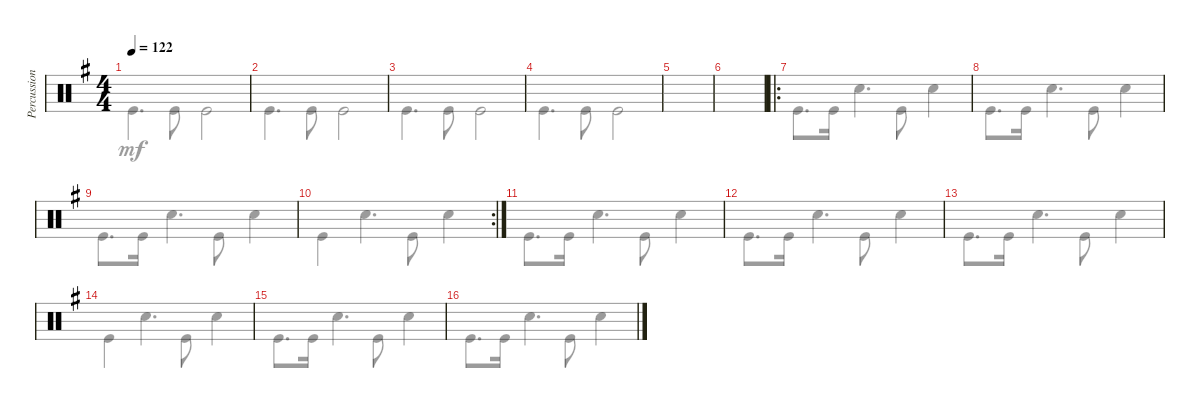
\track ("Percussion" "Percussion") {instrument percussion}
\staff {score}
\articulation defaults
\voice
\ts (4 4)
\tempo 122
\clef neutral
\ks eminor
|
|
|
|
|
|
\ro
|
|
|
\rc 2
|
|
|
|
|
|
\voice
\clef neutral
\ks eminor "Kick (hit)".4{d dy mf} "Kick (hit)".8 "Kick (hit)".2
|
"Kick (hit)".4{d} "Kick (hit)".8 "Kick (hit)".2 |
"Kick (hit)".4{d} "Kick (hit)".8 "Kick (hit)".2 |
"Kick (hit)".4{d} "Kick (hit)".8 "Kick (hit)".2 |
|
|
"Kick (hit)".8{d} "Kick (hit)".16 "Snare (hit) 2".4{d} "Kick (hit)".8 "Snare (hit) 2".4 |
"Kick (hit)".8{d} "Kick (hit)".16 "Snare (hit) 2".4{d} "Kick (hit)".8 "Snare (hit) 2".4 |
"Kick (hit)".8{d} "Kick (hit)".16 "Snare (hit) 2".4{d} "Kick (hit)".8 "Snare (hit) 2".4 |
"Kick (hit)".4 "Snare (hit) 2".4{d} "Kick (hit)".8 "Snare (hit) 2".4 |
"Kick (hit)".8{d} "Kick (hit)".16 "Snare (hit) 2".4{d} "Kick (hit)".8 "Snare (hit) 2".4 |
"Kick (hit)".8{d} "Kick (hit)".16 "Snare (hit) 2".4{d} "Kick (hit)".8 "Snare (hit) 2".4 |
"Kick (hit)".8{d} "Kick (hit)".16 "Snare (hit) 2".4{d} "Kick (hit)".8 "Snare (hit) 2".4 |
"Kick (hit)".4 "Snare (hit) 2".4{d} "Kick (hit)".8 "Snare (hit) 2".4 |
"Kick (hit)".8{d} "Kick (hit)".16 "Snare (hit) 2".4{d} "Kick (hit)".8 "Snare (hit) 2".4 |
"Kick (hit)".8{d} "Kick (hit)".16 "Snare (hit) 2".4{d} "Kick (hit)".8 "Snare (hit) 2".4
